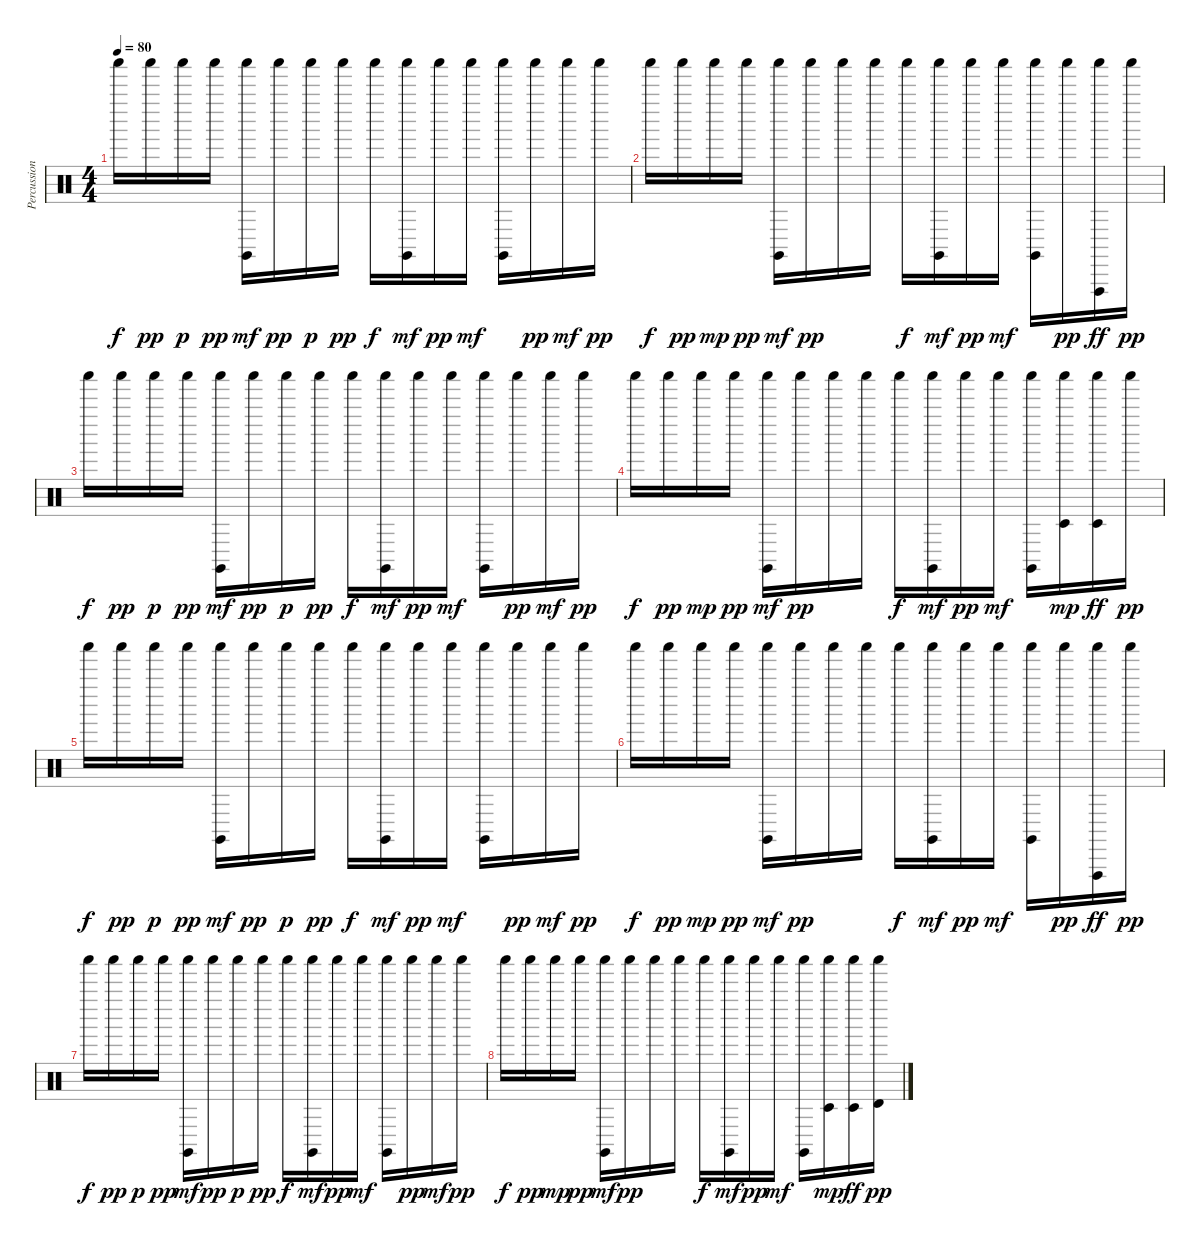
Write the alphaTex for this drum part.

\track ("Percussion" "Percussion") {instrument percussion}
\staff {score}
\articulation defaults
\ts (4 4)
\tempo 80
\clef neutral
\ks c "Shaker (hit)".16{dy f} "Shaker (hit)".16{dy pp} "Shaker (hit)".16{dy p} "Shaker (hit)".16{dy pp}
("Shaker (hit)" "Claves (hit)").16{dy mf} "Shaker (hit)".16{dy pp} "Shaker (hit)".16{dy p} "Shaker (hit)".16{dy pp} "Shaker (hit)".16{dy f} ("Shaker (hit)" "Claves (hit)").16{dy mf} "Shaker (hit)".16{dy pp} "Shaker (hit)".16{dy mf} ("Shaker (hit)" "Claves (hit)").16 "Shaker (hit)".16{dy pp} "Shaker (hit)".16{dy mf} "Shaker (hit)".16{dy pp} |
"Shaker (hit)".16{dy f} "Shaker (hit)".16{dy pp} "Shaker (hit)".16{dy mp} "Shaker (hit)".16{dy pp} ("Shaker (hit)" "Claves (hit)").16{dy mf} "Shaker (hit)".16{dy pp} "Shaker (hit)".16 "Shaker (hit)".16 "Shaker (hit)".16{dy f} ("Shaker (hit)" "Claves (hit)").16{dy mf} "Shaker (hit)".16{dy pp} "Shaker (hit)".16{dy mf} ("Shaker (hit)" "Claves (hit)").16 "Shaker (hit)".16{dy pp} ("Shaker (hit)" "Vibraslap (hit)").16{dy ff} "Shaker (hit)".16{dy pp} |
"Shaker (hit)".16{dy f} "Shaker (hit)".16{dy pp} "Shaker (hit)".16{dy p} "Shaker (hit)".16{dy pp} ("Shaker (hit)" "Claves (hit)").16{dy mf} "Shaker (hit)".16{dy pp} "Shaker (hit)".16{dy p} "Shaker (hit)".16{dy pp} "Shaker (hit)".16{dy f} ("Shaker (hit)" "Claves (hit)").16{dy mf} "Shaker (hit)".16{dy pp} "Shaker (hit)".16{dy mf} ("Shaker (hit)" "Claves (hit)").16 "Shaker (hit)".16{dy pp} "Shaker (hit)".16{dy mf} "Shaker (hit)".16{dy pp} |
"Shaker (hit)".16{dy f} "Shaker (hit)".16{dy pp} "Shaker (hit)".16{dy mp} "Shaker (hit)".16{dy pp} ("Shaker (hit)" "Claves (hit)").16{dy mf} "Shaker (hit)".16{dy pp} "Shaker (hit)".16 "Shaker (hit)".16 "Shaker (hit)".16{dy f} ("Shaker (hit)" "Claves (hit)").16{dy mf} "Shaker (hit)".16{dy pp} "Shaker (hit)".16{dy mf} ("Shaker (hit)" "Claves (hit)").16 ("Shaker (hit)" "Timbale low (hit)").16{dy mp} ("Shaker (hit)" "Timbale low (hit)").16{dy ff} "Shaker (hit)".16{dy pp} |
"Shaker (hit)".16{dy f} "Shaker (hit)".16{dy pp} "Shaker (hit)".16{dy p} "Shaker (hit)".16{dy pp} ("Shaker (hit)" "Claves (hit)").16{dy mf} "Shaker (hit)".16{dy pp} "Shaker (hit)".16{dy p} "Shaker (hit)".16{dy pp} "Shaker (hit)".16{dy f} ("Shaker (hit)" "Claves (hit)").16{dy mf} "Shaker (hit)".16{dy pp} "Shaker (hit)".16{dy mf} ("Shaker (hit)" "Claves (hit)").16 "Shaker (hit)".16{dy pp} "Shaker (hit)".16{dy mf} "Shaker (hit)".16{dy pp} |
"Shaker (hit)".16{dy f} "Shaker (hit)".16{dy pp} "Shaker (hit)".16{dy mp} "Shaker (hit)".16{dy pp} ("Shaker (hit)" "Claves (hit)").16{dy mf} "Shaker (hit)".16{dy pp} "Shaker (hit)".16 "Shaker (hit)".16 "Shaker (hit)".16{dy f} ("Shaker (hit)" "Claves (hit)").16{dy mf} "Shaker (hit)".16{dy pp} "Shaker (hit)".16{dy mf} ("Shaker (hit)" "Claves (hit)").16 "Shaker (hit)".16{dy pp} ("Shaker (hit)" "Vibraslap (hit)").16{dy ff} "Shaker (hit)".16{dy pp} |
"Shaker (hit)".16{dy f} "Shaker (hit)".16{dy pp} "Shaker (hit)".16{dy p} "Shaker (hit)".16{dy pp} ("Shaker (hit)" "Claves (hit)").16{dy mf} "Shaker (hit)".16{dy pp} "Shaker (hit)".16{dy p} "Shaker (hit)".16{dy pp} "Shaker (hit)".16{dy f} ("Shaker (hit)" "Claves (hit)").16{dy mf} "Shaker (hit)".16{dy pp} "Shaker (hit)".16{dy mf} ("Shaker (hit)" "Claves (hit)").16 "Shaker (hit)".16{dy pp} "Shaker (hit)".16{dy mf} "Shaker (hit)".16{dy pp} |
"Shaker (hit)".16{dy f} "Shaker (hit)".16{dy pp} "Shaker (hit)".16{dy mp} "Shaker (hit)".16{dy pp} ("Shaker (hit)" "Claves (hit)").16{dy mf} "Shaker (hit)".16{dy pp} "Shaker (hit)".16 "Shaker (hit)".16 "Shaker (hit)".16{dy f} ("Shaker (hit)" "Claves (hit)").16{dy mf} "Shaker (hit)".16{dy pp} "Shaker (hit)".16{dy mf} ("Shaker (hit)" "Claves (hit)").16 ("Shaker (hit)" "Timbale low (hit)").16{dy mp} ("Shaker (hit)" "Timbale low (hit)").16{dy ff} ("Shaker (hit)" "Timbale high (hit)").16{dy pp}
